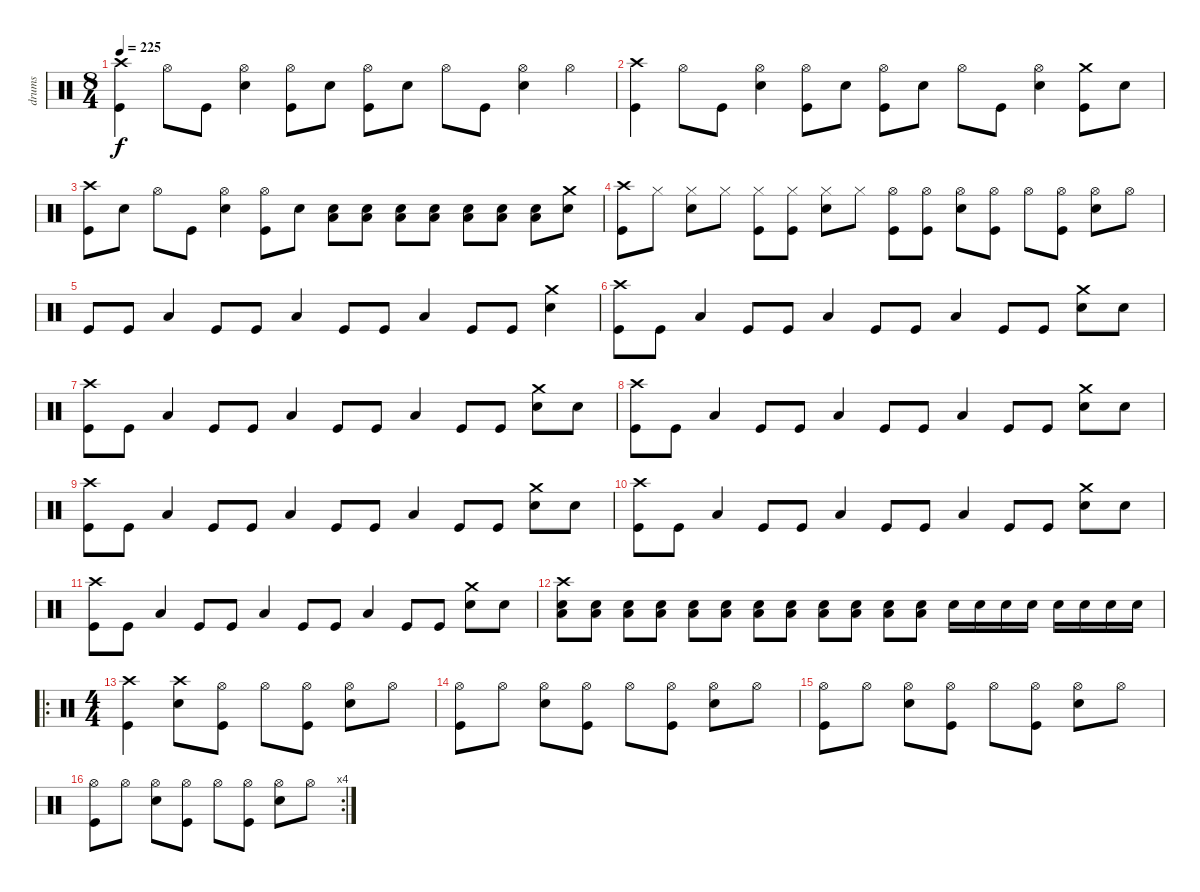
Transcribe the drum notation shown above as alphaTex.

\track ("drums" "drums") {instrument percussion}
\staff {score}
\articulation defaults
\ts (8 4)
\tempo 225
\clef neutral
\ks c
("Crash high (hit)" "Kick (hit)").4{dy f} "Hi-Hat (open)".8 "Kick (hit)".8 ("Hi-Hat (open)" "Snare (hit) 2").4 ("Hi-Hat (open)" "Kick (hit)").8 "Snare (hit) 2".8 ("Hi-Hat (open)" "Kick (hit)").8 "Snare (hit) 2".8 "Hi-Hat (open)".8 "Kick (hit)".8 ("Hi-Hat (open)" "Snare (hit) 2").4 "Hi-Hat (open)".4 |
("Crash high (hit)" "Kick (hit)").4 "Hi-Hat (open)".8 "Kick (hit)".8 ("Hi-Hat (open)" "Snare (hit) 2").4 ("Hi-Hat (open)" "Kick (hit)").8 "Snare (hit) 2".8 ("Hi-Hat (open)" "Kick (hit)").8 "Snare (hit) 2".8 "Hi-Hat (open)".8 "Kick (hit)".8 ("Hi-Hat (open)" "Snare (hit) 2").4 ("Crash medium (hit)" "Kick (hit)").8 "Snare (hit) 2".8 |
("Crash high (hit)" "Kick (hit)").8 "Snare (hit) 2".8 "Hi-Hat (open)".8 "Kick (hit)".8 ("Hi-Hat (open)" "Snare (hit) 2").4 ("Hi-Hat (open)" "Kick (hit)").8 "Snare (hit) 2".8 ("Snare (hit) 2" "Low Tom (hit)").8 ("Snare (hit) 2" "Low Tom (hit)").8 ("Snare (hit) 2" "Low Tom (hit)").8 ("Snare (hit) 2" "Low Tom (hit)").8 ("Snare (hit) 2" "Low Tom (hit)").8 ("Snare (hit) 2" "Low Tom (hit)").8 ("Snare (hit) 2" "Low Tom (hit)").8 ("Snare (hit) 2" "Crash medium (hit)").8 |
("Crash high (hit)" "Kick (hit)").8 "Hi-Hat (closed)".8 ("Hi-Hat (closed)" "Snare (hit) 2").8 "Hi-Hat (closed)".8 ("Hi-Hat (closed)" "Kick (hit)").8 ("Hi-Hat (closed)" "Kick (hit)").8 ("Hi-Hat (closed)" "Snare (hit) 2").8 "Hi-Hat (closed)".8 ("Hi-Hat (open)" "Kick (hit)").8 ("Hi-Hat (open)" "Kick (hit)").8 ("Hi-Hat (open)" "Snare (hit) 2").8 ("Hi-Hat (open)" "Kick (hit)").8 "Hi-Hat (open)".8 ("Hi-Hat (open)" "Kick (hit)").8 ("Hi-Hat (open)" "Snare (hit) 2").8 "Hi-Hat (open)".8 |
"Kick (hit)".8 "Kick (hit)".8 "Low Tom (hit)".4 "Kick (hit)".8 "Kick (hit)".8 "Low Tom (hit)".4 "Kick (hit)".8 "Kick (hit)".8 "Low Tom (hit)".4 "Kick (hit)".8 "Kick (hit)".8 ("Snare (hit) 2" "Crash medium (hit)").4 |
("Crash high (hit)" "Kick (hit)").8 "Kick (hit)".8 "Low Tom (hit)".4 "Kick (hit)".8 "Kick (hit)".8 "Low Tom (hit)".4 "Kick (hit)".8 "Kick (hit)".8 "Low Tom (hit)".4 "Kick (hit)".8 "Kick (hit)".8 ("Snare (hit) 2" "Crash medium (hit)").8 "Snare (hit) 2".8 |
("Crash high (hit)" "Kick (hit)").8 "Kick (hit)".8 "Low Tom (hit)".4 "Kick (hit)".8 "Kick (hit)".8 "Low Tom (hit)".4 "Kick (hit)".8 "Kick (hit)".8 "Low Tom (hit)".4 "Kick (hit)".8 "Kick (hit)".8 ("Snare (hit) 2" "Crash medium (hit)").8 "Snare (hit) 2".8 |
("Crash high (hit)" "Kick (hit)").8 "Kick (hit)".8 "Low Tom (hit)".4 "Kick (hit)".8 "Kick (hit)".8 "Low Tom (hit)".4 "Kick (hit)".8 "Kick (hit)".8 "Low Tom (hit)".4 "Kick (hit)".8 "Kick (hit)".8 ("Snare (hit) 2" "Crash medium (hit)").8 "Snare (hit) 2".8 |
("Crash high (hit)" "Kick (hit)").8 "Kick (hit)".8 "Low Tom (hit)".4 "Kick (hit)".8 "Kick (hit)".8 "Low Tom (hit)".4 "Kick (hit)".8 "Kick (hit)".8 "Low Tom (hit)".4 "Kick (hit)".8 "Kick (hit)".8 ("Snare (hit) 2" "Crash medium (hit)").8 "Snare (hit) 2".8 |
("Crash high (hit)" "Kick (hit)").8 "Kick (hit)".8 "Low Tom (hit)".4 "Kick (hit)".8 "Kick (hit)".8 "Low Tom (hit)".4 "Kick (hit)".8 "Kick (hit)".8 "Low Tom (hit)".4 "Kick (hit)".8 "Kick (hit)".8 ("Snare (hit) 2" "Crash medium (hit)").8 "Snare (hit) 2".8 |
("Crash high (hit)" "Kick (hit)").8 "Kick (hit)".8 "Low Tom (hit)".4 "Kick (hit)".8 "Kick (hit)".8 "Low Tom (hit)".4 "Kick (hit)".8 "Kick (hit)".8 "Low Tom (hit)".4 "Kick (hit)".8 "Kick (hit)".8 ("Snare (hit) 2" "Crash medium (hit)").8 "Snare (hit) 2".8 |
("Snare (hit) 2" "Low Tom (hit)" "Crash high (hit)").8 ("Snare (hit) 2" "Low Tom (hit)").8 ("Snare (hit) 2" "Low Tom (hit)").8 ("Snare (hit) 2" "Low Tom (hit)").8 ("Snare (hit) 2" "Low Tom (hit)").8 ("Snare (hit) 2" "Low Tom (hit)").8 ("Snare (hit) 2" "Low Tom (hit)").8 ("Snare (hit) 2" "Low Tom (hit)").8 ("Snare (hit) 2" "Low Tom (hit)").8 ("Snare (hit) 2" "Low Tom (hit)").8 ("Snare (hit) 2" "Low Tom (hit)").8 ("Snare (hit) 2" "Low Tom (hit)").8 "Snare (hit) 2".16 "Snare (hit) 2".16 "Snare (hit) 2".16 "Snare (hit) 2".16 "Snare (hit) 2".16 "Snare (hit) 2".16 "Snare (hit) 2".16 "Snare (hit) 2".16 |
\ro
\ts (4 4)
("Crash high (hit)" "Kick (hit)").4 ("Crash high (hit)" "Snare (hit) 2").8 ("Hi-Hat (open)" "Kick (hit)").8 "Hi-Hat (open)".8 ("Hi-Hat (open)" "Kick (hit)").8 ("Hi-Hat (open)" "Snare (hit) 2").8 "Hi-Hat (open)".8 |
("Hi-Hat (open)" "Kick (hit)").8 "Hi-Hat (open)".8 ("Hi-Hat (open)" "Snare (hit) 2").8 ("Hi-Hat (open)" "Kick (hit)").8 "Hi-Hat (open)".8 ("Hi-Hat (open)" "Kick (hit)").8 ("Hi-Hat (open)" "Snare (hit) 2").8 "Hi-Hat (open)".8 |
("Hi-Hat (open)" "Kick (hit)").8 "Hi-Hat (open)".8 ("Hi-Hat (open)" "Snare (hit) 2").8 ("Hi-Hat (open)" "Kick (hit)").8 "Hi-Hat (open)".8 ("Hi-Hat (open)" "Kick (hit)").8 ("Hi-Hat (open)" "Snare (hit) 2").8 "Hi-Hat (open)".8 |
\rc 4
("Hi-Hat (open)" "Kick (hit)").8 "Hi-Hat (open)".8 ("Hi-Hat (open)" "Snare (hit) 2").8 ("Hi-Hat (open)" "Kick (hit)").8 "Hi-Hat (open)".8 ("Hi-Hat (open)" "Kick (hit)").8 ("Hi-Hat (open)" "Snare (hit) 2").8 "Hi-Hat (open)".8
